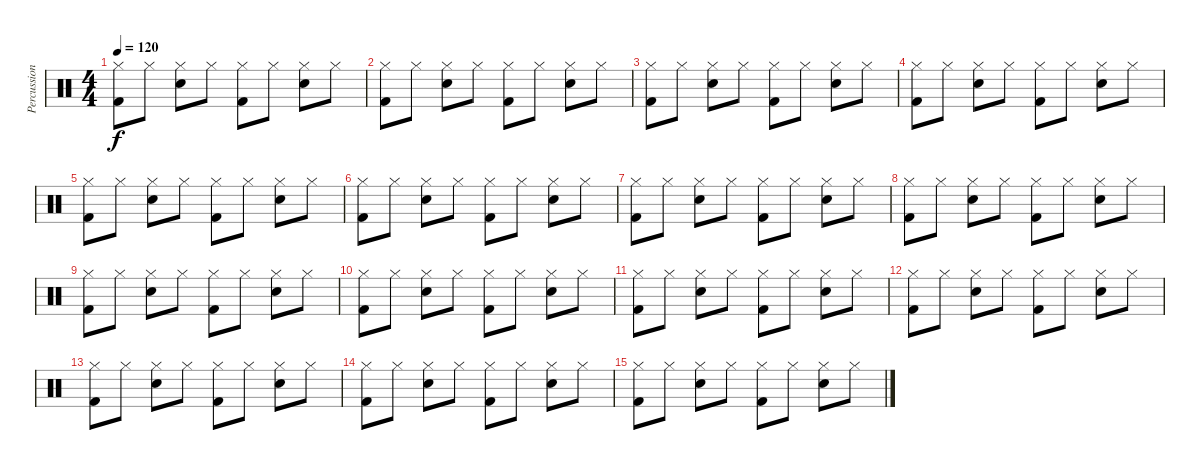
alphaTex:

\track ("Percussions" "Percussion") {instrument percussion}
\staff {score}
\articulation defaults
\ts (4 4)
\tempo 120
\clef neutral
\ks c
("Hi-Hat (closed)" "Kick (hit) 2").8{dy f} "Hi-Hat (closed)".8 ("Hi-Hat (closed)" "Snare (hit) 2").8 "Hi-Hat (closed)".8 ("Hi-Hat (closed)" "Kick (hit) 2").8 "Hi-Hat (closed)".8 ("Hi-Hat (closed)" "Snare (hit) 2").8 "Hi-Hat (closed)".8 |
("Hi-Hat (closed)" "Kick (hit) 2").8 "Hi-Hat (closed)".8 ("Hi-Hat (closed)" "Snare (hit) 2").8 "Hi-Hat (closed)".8 ("Hi-Hat (closed)" "Kick (hit) 2").8 "Hi-Hat (closed)".8 ("Hi-Hat (closed)" "Snare (hit) 2").8 "Hi-Hat (closed)".8 |
("Hi-Hat (closed)" "Kick (hit) 2").8 "Hi-Hat (closed)".8 ("Hi-Hat (closed)" "Snare (hit) 2").8 "Hi-Hat (closed)".8 ("Hi-Hat (closed)" "Kick (hit) 2").8 "Hi-Hat (closed)".8 ("Hi-Hat (closed)" "Snare (hit) 2").8 "Hi-Hat (closed)".8 |
("Hi-Hat (closed)" "Kick (hit) 2").8 "Hi-Hat (closed)".8 ("Hi-Hat (closed)" "Snare (hit) 2").8 "Hi-Hat (closed)".8 ("Hi-Hat (closed)" "Kick (hit) 2").8 "Hi-Hat (closed)".8 ("Hi-Hat (closed)" "Snare (hit) 2").8 "Hi-Hat (closed)".8 |
("Hi-Hat (closed)" "Kick (hit) 2").8 "Hi-Hat (closed)".8 ("Hi-Hat (closed)" "Snare (hit) 2").8 "Hi-Hat (closed)".8 ("Hi-Hat (closed)" "Kick (hit) 2").8 "Hi-Hat (closed)".8 ("Hi-Hat (closed)" "Snare (hit) 2").8 "Hi-Hat (closed)".8 |
("Hi-Hat (closed)" "Kick (hit) 2").8 "Hi-Hat (closed)".8 ("Hi-Hat (closed)" "Snare (hit) 2").8 "Hi-Hat (closed)".8 ("Hi-Hat (closed)" "Kick (hit) 2").8 "Hi-Hat (closed)".8 ("Hi-Hat (closed)" "Snare (hit) 2").8 "Hi-Hat (closed)".8 |
("Hi-Hat (closed)" "Kick (hit) 2").8 "Hi-Hat (closed)".8 ("Hi-Hat (closed)" "Snare (hit) 2").8 "Hi-Hat (closed)".8 ("Hi-Hat (closed)" "Kick (hit) 2").8 "Hi-Hat (closed)".8 ("Hi-Hat (closed)" "Snare (hit) 2").8 "Hi-Hat (closed)".8 |
("Hi-Hat (closed)" "Kick (hit) 2").8 "Hi-Hat (closed)".8 ("Hi-Hat (closed)" "Snare (hit) 2").8 "Hi-Hat (closed)".8 ("Hi-Hat (closed)" "Kick (hit) 2").8 "Hi-Hat (closed)".8 ("Hi-Hat (closed)" "Snare (hit) 2").8 "Hi-Hat (closed)".8 |
("Hi-Hat (closed)" "Kick (hit) 2").8 "Hi-Hat (closed)".8 ("Hi-Hat (closed)" "Snare (hit) 2").8 "Hi-Hat (closed)".8 ("Hi-Hat (closed)" "Kick (hit) 2").8 "Hi-Hat (closed)".8 ("Hi-Hat (closed)" "Snare (hit) 2").8 "Hi-Hat (closed)".8 |
("Hi-Hat (closed)" "Kick (hit) 2").8 "Hi-Hat (closed)".8 ("Hi-Hat (closed)" "Snare (hit) 2").8 "Hi-Hat (closed)".8 ("Hi-Hat (closed)" "Kick (hit) 2").8 "Hi-Hat (closed)".8 ("Hi-Hat (closed)" "Snare (hit) 2").8 "Hi-Hat (closed)".8 |
("Hi-Hat (closed)" "Kick (hit) 2").8 "Hi-Hat (closed)".8 ("Hi-Hat (closed)" "Snare (hit) 2").8 "Hi-Hat (closed)".8 ("Hi-Hat (closed)" "Kick (hit) 2").8 "Hi-Hat (closed)".8 ("Hi-Hat (closed)" "Snare (hit) 2").8 "Hi-Hat (closed)".8 |
("Hi-Hat (closed)" "Kick (hit) 2").8 "Hi-Hat (closed)".8 ("Hi-Hat (closed)" "Snare (hit) 2").8 "Hi-Hat (closed)".8 ("Hi-Hat (closed)" "Kick (hit) 2").8 "Hi-Hat (closed)".8 ("Hi-Hat (closed)" "Snare (hit) 2").8 "Hi-Hat (closed)".8 |
("Hi-Hat (closed)" "Kick (hit) 2").8 "Hi-Hat (closed)".8 ("Hi-Hat (closed)" "Snare (hit) 2").8 "Hi-Hat (closed)".8 ("Hi-Hat (closed)" "Kick (hit) 2").8 "Hi-Hat (closed)".8 ("Hi-Hat (closed)" "Snare (hit) 2").8 "Hi-Hat (closed)".8 |
("Hi-Hat (closed)" "Kick (hit) 2").8 "Hi-Hat (closed)".8 ("Hi-Hat (closed)" "Snare (hit) 2").8 "Hi-Hat (closed)".8 ("Hi-Hat (closed)" "Kick (hit) 2").8 "Hi-Hat (closed)".8 ("Hi-Hat (closed)" "Snare (hit) 2").8 "Hi-Hat (closed)".8 |
("Hi-Hat (closed)" "Kick (hit) 2").8 "Hi-Hat (closed)".8 ("Hi-Hat (closed)" "Snare (hit) 2").8 "Hi-Hat (closed)".8 ("Hi-Hat (closed)" "Kick (hit) 2").8 "Hi-Hat (closed)".8 ("Hi-Hat (closed)" "Snare (hit) 2").8 "Hi-Hat (closed)".8
